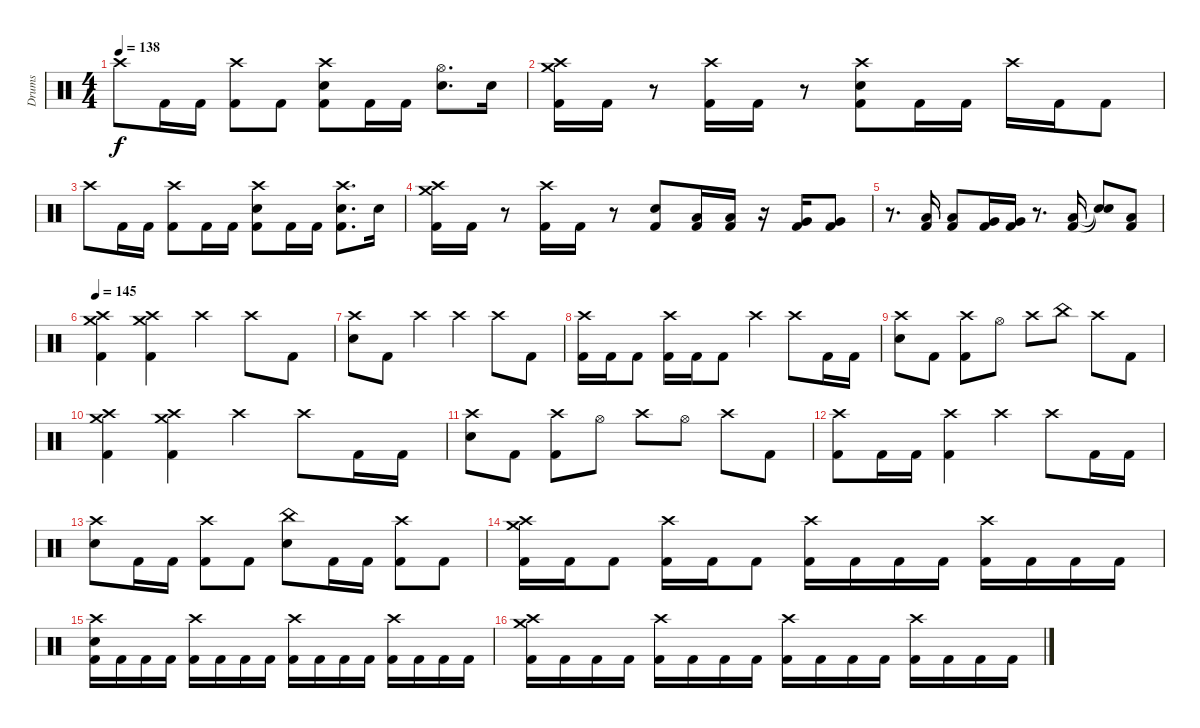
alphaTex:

\track ("Drums" "Drums") {instrument percussion}
\staff {score}
\articulation defaults
\ts (4 4)
\tempo 138
\clef neutral
\ks c "Crash high (hit)".8{dy f} "Kick (hit) 2".16 "Kick (hit) 2".16
("Crash high (hit)" "Kick (hit) 2").8 "Kick (hit) 2".8 ("Crash high (hit)" "Electric Snare (hit)" "Kick (hit) 2").8 "Kick (hit) 2".16 "Kick (hit) 2".16 ("Hi-Hat (open)" "Electric Snare (hit)").8{d} "Electric Snare (hit)".16 |
("Crash high (hit)" "Crash medium (hit)" "Kick (hit) 2").16 "Kick (hit) 2".16 r.8 ("Crash high (hit)" "Kick (hit) 2").16 "Kick (hit) 2".16 r.8 ("Crash high (hit)" "Electric Snare (hit)" "Kick (hit) 2").8 "Kick (hit) 2".16 "Kick (hit) 2".16 "Crash high (hit)".16 "Kick (hit) 2".16 "Kick (hit) 2".8 |
"Crash high (hit)".8 "Kick (hit) 2".16 "Kick (hit) 2".16 ("Crash high (hit)" "Kick (hit) 2").8 "Kick (hit) 2".16 "Kick (hit) 2".16 ("Crash high (hit)" "Electric Snare (hit)" "Kick (hit) 2").8 "Kick (hit) 2".16 "Kick (hit) 2".16 ("Crash high (hit)" "Electric Snare (hit)" "Kick (hit) 2").8{d} "Electric Snare (hit)".16 |
("Crash high (hit)" "Crash medium (hit)" "Kick (hit) 2").16 "Kick (hit) 2".16 r.8 ("Crash high (hit)" "Kick (hit) 2").16 "Kick (hit) 2".16 r.8 ("Electric Snare (hit)" "Kick (hit) 2").8 ("Low Tom (hit)" "Kick (hit) 2").16 ("Low Tom (hit)" "Kick (hit) 2").16 r.16 ("Very Low Tom (hit)" "Kick (hit) 2").16 ("Very Low Tom (hit)" "Kick (hit) 2").8 |
r.8{d} ("Low Tom (hit)" "Kick (hit) 2").16 ("Low Tom (hit)" "Kick (hit) 2").8 ("Very Low Tom (hit)" "Kick (hit) 2").16 ("Very Low Tom (hit)" "Kick (hit) 2").16 r.8{d} ("Low Floor Tom (hit)" "Kick (hit) 2").16 ("Snare (hit)"{t} "Snare (hit)"{t}).8 ("Low Floor Tom (hit)" "Kick (hit) 2").8 |
\tempo 145
("Crash high (hit)" "Crash medium (hit)" "Kick (hit) 2").4 ("Crash high (hit)" "Crash medium (hit)" "Kick (hit) 2").4 "Crash high (hit)".4 "Crash high (hit)".8 "Kick (hit) 2".8 |
("Crash high (hit)" "Electric Snare (hit)").8 "Kick (hit) 2".8 "Crash high (hit)".4 "Crash high (hit)".4 "Crash high (hit)".8 "Kick (hit) 2".8 |
("Crash high (hit)" "Kick (hit) 2").16 "Kick (hit) 2".16 "Kick (hit) 2".8 ("Crash high (hit)" "Kick (hit) 2").16 "Kick (hit) 2".16 "Kick (hit) 2".8 "Crash high (hit)".4 "Crash high (hit)".8 "Kick (hit) 2".16 "Kick (hit) 2".16 |
("Crash high (hit)" "Electric Snare (hit)").8 "Kick (hit) 2".8 ("Crash high (hit)" "Kick (hit) 2").8 "Hi-Hat (open)".8 "Crash high (hit)".8 "China (hit)".8 "Crash high (hit)".8 "Kick (hit) 2".8 |
("Crash high (hit)" "Crash medium (hit)" "Kick (hit) 2").4 ("Crash high (hit)" "Crash medium (hit)" "Kick (hit) 2").4 "Crash high (hit)".4 "Crash high (hit)".8 "Kick (hit) 2".16 "Kick (hit) 2".16 |
("Crash high (hit)" "Electric Snare (hit)").8 "Kick (hit) 2".8 ("Crash high (hit)" "Kick (hit) 2").8 "Hi-Hat (open)".8 "Crash high (hit)".8 "Hi-Hat (open)".8 "Crash high (hit)".8 "Kick (hit) 2".8 |
("Crash high (hit)" "Kick (hit) 2").8 "Kick (hit) 2".16 "Kick (hit) 2".16 ("Crash high (hit)" "Kick (hit) 2").4 "Crash high (hit)".4 "Crash high (hit)".8 "Kick (hit) 2".16 "Kick (hit) 2".16 |
("Crash high (hit)" "Electric Snare (hit)").8 "Kick (hit) 2".16 "Kick (hit) 2".16 ("Crash high (hit)" "Kick (hit) 2").8 "Kick (hit) 2".8 ("China (hit)" "Electric Snare (hit)").8 "Kick (hit) 2".16 "Kick (hit) 2".16 ("Crash high (hit)" "Kick (hit) 2").8 "Kick (hit) 2".8 |
("Crash high (hit)" "Crash medium (hit)" "Kick (hit) 2").16 "Kick (hit) 2".16 "Kick (hit) 2".8 ("Crash high (hit)" "Kick (hit) 2").16 "Kick (hit) 2".16 "Kick (hit) 2".8 ("Crash high (hit)" "Kick (hit) 2").16 "Kick (hit) 2".16 "Kick (hit) 2".16 "Kick (hit) 2".16 ("Crash high (hit)" "Kick (hit) 2").16 "Kick (hit) 2".16 "Kick (hit) 2".16 "Kick (hit) 2".16 |
("Crash high (hit)" "Electric Snare (hit)" "Kick (hit) 2").16 "Kick (hit) 2".16 "Kick (hit) 2".16 "Kick (hit) 2".16 ("Crash high (hit)" "Kick (hit) 2").16 "Kick (hit) 2".16 "Kick (hit) 2".16 "Kick (hit) 2".16 ("Crash high (hit)" "Kick (hit) 2").16 "Kick (hit) 2".16 "Kick (hit) 2".16 "Kick (hit) 2".16 ("Crash high (hit)" "Kick (hit) 2").16 "Kick (hit) 2".16 "Kick (hit) 2".16 "Kick (hit) 2".16 |
("Crash high (hit)" "Crash medium (hit)" "Kick (hit) 2").16 "Kick (hit) 2".16 "Kick (hit) 2".16 "Kick (hit) 2".16 ("Crash high (hit)" "Kick (hit) 2").16 "Kick (hit) 2".16 "Kick (hit) 2".16 "Kick (hit) 2".16 ("Crash high (hit)" "Kick (hit) 2").16 "Kick (hit) 2".16 "Kick (hit) 2".16 "Kick (hit) 2".16 ("Crash high (hit)" "Kick (hit) 2").16 "Kick (hit) 2".16 "Kick (hit) 2".16 "Kick (hit) 2".16
